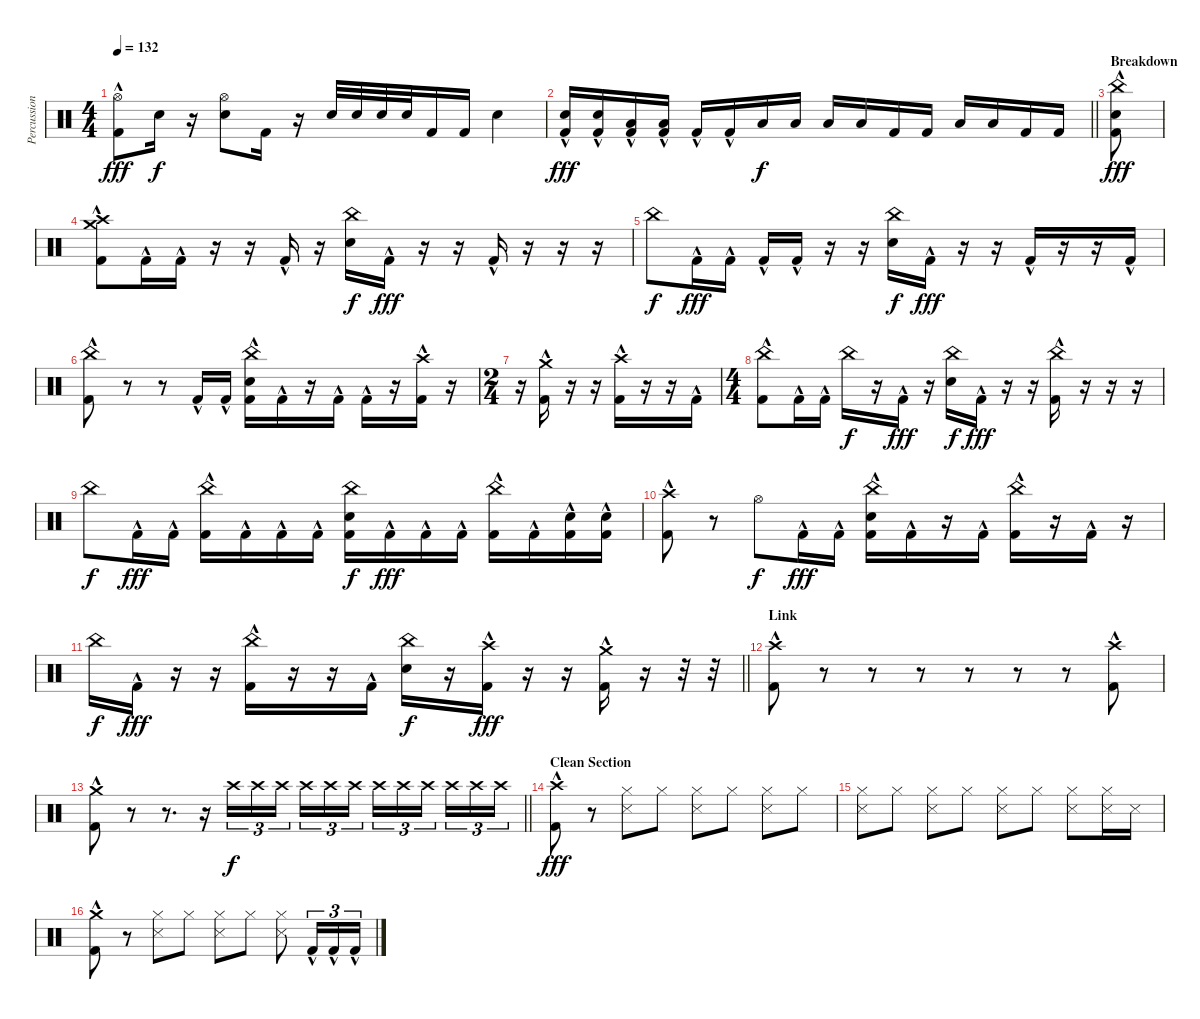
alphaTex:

\track ("Percussion" "Percussion") {instrument percussion}
\staff {score}
\articulation defaults
\ts (4 4)
\tempo 132
\clef neutral
\ks c
("Hi-Hat (open)" "Kick (hit) 2"{hac}).8{dy fff} "Electric Snare (hit)".16{dy f} r.16 ("Hi-Hat (open)" "Electric Snare (hit)").8 "Kick (hit) 2".16 r.16 "Electric Snare (hit)".32 "Electric Snare (hit)".32 "Electric Snare (hit)".32 "Electric Snare (hit)".32 "Kick (hit) 2".16 "Kick (hit) 2".16 "Electric Snare (hit)".4 |
\barLineRight lightlight
("Electric Snare (hit)" "Kick (hit) 2"{hac}).16{dy fff} ("Electric Snare (hit)" "Kick (hit) 2"{hac}).16 ("Low Tom (hit)"{hac} "Kick (hit) 2"{hac}).16 ("Low Tom (hit)"{hac} "Kick (hit) 2"{hac}).16 "Kick (hit) 2"{hac}.16 "Kick (hit) 2"{hac}.16 "Low Tom (hit)".16{dy f} "Low Tom (hit)".16 "Low Floor Tom (hit)".16 "Low Floor Tom (hit)".16 "Kick (hit) 2".16 "Kick (hit) 2".16 "Low Floor Tom (hit)".16 "Low Floor Tom (hit)".16 "Kick (hit) 2".16 "Kick (hit) 2".16 |
\section ("" "Breakdown")
("China (hit)" "Electric Snare (hit)"{hac} "Kick (hit) 2"{hac}).8{dy fff} |
("Crash high (hit)" "Crash medium (hit)" "Kick (hit) 2"{hac}).8 "Kick (hit) 2"{hac}.16 "Kick (hit) 2"{hac}.16 r.16 r.16 "Kick (hit) 2"{hac}.16 r.16 ("China (hit)" "Electric Snare (hit)").16{dy f} "Kick (hit) 2"{hac}.16{dy fff} r.16 r.16 "Kick (hit) 2"{hac}.16 r.16 r.16 r.16 |
"China (hit)".8{dy f} "Kick (hit) 2"{hac}.16{dy fff} "Kick (hit) 2"{hac}.16 "Kick (hit) 2"{hac}.16 "Kick (hit) 2"{hac}.16 r.16 r.16 ("China (hit)" "Electric Snare (hit)").16{dy f} "Kick (hit) 2"{hac}.16{dy fff} r.16 r.16 "Kick (hit) 2"{hac}.16 r.16 r.16 "Kick (hit) 2"{hac}.16 |
("China (hit)" "Kick (hit) 2"{hac}).8 r.8 r.8 "Kick (hit) 2"{hac}.16 "Kick (hit) 2"{hac}.16 ("Electric Snare (hit)" "China (hit)" "Kick (hit) 2"{hac}).16 "Kick (hit) 2"{hac}.16 r.16 "Kick (hit) 2"{hac}.16 "Kick (hit) 2"{hac}.16 r.16 ("Crash high (hit)" "Kick (hit) 2"{hac}).16 r.16 |
\ts (2 4)
r.16 ("Crash medium (hit)" "Kick (hit) 2"{hac}).16 r.16 r.16 ("Crash high (hit)" "Kick (hit) 2"{hac}).16 r.16 r.16 "Kick (hit) 2"{hac}.16 |
\ts (4 4)
("China (hit)" "Kick (hit) 2"{hac}).8 "Kick (hit) 2"{hac}.16 "Kick (hit) 2"{hac}.16 "China (hit)".16{dy f} r.16 "Kick (hit) 2"{hac}.16{dy fff} r.16 ("China (hit)" "Electric Snare (hit)").16{dy f} "Kick (hit) 2"{hac}.16{dy fff} r.16 r.16 ("China (hit)" "Kick (hit) 2"{hac}).16 r.16 r.16 r.16 |
"China (hit)".8{dy f} "Kick (hit) 2"{hac}.16{dy fff} "Kick (hit) 2"{hac}.16 ("China (hit)" "Kick (hit) 2"{hac}).16 "Kick (hit) 2"{hac}.16 "Kick (hit) 2"{hac}.16 "Kick (hit) 2"{hac}.16 ("China (hit)" "Electric Snare (hit)" "Kick (hit) 2").16{dy f} "Kick (hit) 2"{hac}.16{dy fff} "Kick (hit) 2"{hac}.16 "Kick (hit) 2"{hac}.16 ("China (hit)" "Kick (hit) 2"{hac}).16 "Kick (hit) 2"{hac}.16 ("Electric Snare (hit)" "Kick (hit) 2"{hac}).16 ("Electric Snare (hit)" "Kick (hit) 2"{hac}).16 |
("Crash high (hit)" "Kick (hit) 2"{hac}).8 r.8 "Hi-Hat (open)".8{dy f} "Kick (hit) 2"{hac}.16{dy fff} "Kick (hit) 2"{hac}.16 ("China (hit)" "Electric Snare (hit)" "Kick (hit) 2"{hac}).16 "Kick (hit) 2"{hac}.16 r.16 "Kick (hit) 2"{hac}.16 ("China (hit)" "Kick (hit) 2"{hac}).16 r.16 "Kick (hit) 2"{hac}.16 r.16 |
\barLineRight lightlight "China (hit)".16{dy f} "Kick (hit) 2"{hac}.16{dy fff}
r.16 r.16 ("China (hit)" "Kick (hit) 2"{hac}).16 r.16 r.16 "Kick (hit) 2"{hac}.16 ("China (hit)" "Electric Snare (hit)").16{dy f} r.16 ("Crash high (hit)" "Kick (hit) 2"{hac}).16{dy fff} r.16 r.16 ("Crash medium (hit)" "Kick (hit) 2"{hac}).16 r.16 r.32 r.32 |
\section ("" "Link")
("Crash high (hit)" "Kick (hit) 2"{hac}).8 r.8 r.8 r.8 r.8 r.8 r.8 ("Crash high (hit)" "Kick (hit) 2"{hac}).8 |
\barLineRight lightlight
("Crash medium (hit)"{hac} "Kick (hit) 2"{hac}).8 r.8 r.8{d} r.16{volume 3} "Crash high (hit)".16{tu (3 2) dy f volume 13} "Crash high (hit)".16{tu (3 2)} "Crash high (hit)".16{tu (3 2) beam splitsecondary} "Crash high (hit)".16{tu (3 2)} "Crash high (hit)".16{tu (3 2)} "Crash high (hit)".16{tu (3 2)} "Crash high (hit)".16{tu (3 2)} "Crash high (hit)".16{tu (3 2)} "Crash high (hit)".16{tu (3 2) beam splitsecondary} "Crash high (hit)".16{tu (3 2)} "Crash high (hit)".16{tu (3 2)} "Crash high (hit)".16{tu (3 2)} |
\section ("" "Clean Section")
("Kick (hit) 2"{hac} "Crash high (hit)"{hac}).8{dy fff} r.8 ("Snare (side stick) 3" "Hi-Hat (closed)").8 "Hi-Hat (closed)".8 ("Snare (side stick) 3" "Hi-Hat (closed)").8 "Hi-Hat (closed)".8 ("Snare (side stick) 3" "Hi-Hat (closed)").8 "Hi-Hat (closed)".8 |
("Snare (side stick) 3" "Hi-Hat (closed)").8 "Hi-Hat (closed)".8 ("Snare (side stick) 3" "Hi-Hat (closed)").8 "Hi-Hat (closed)".8 ("Snare (side stick) 3" "Hi-Hat (closed)").8 "Hi-Hat (closed)".8 ("Snare (side stick) 3" "Hi-Hat (closed)").8 ("Snare (side stick) 3" "Hi-Hat (closed)").16 "Snare (side stick) 3".16 |
("Kick (hit) 2"{hac} "Crash medium (hit)").8 r.8 ("Snare (side stick) 3" "Hi-Hat (closed)").8 "Hi-Hat (closed)".8 ("Snare (side stick) 3" "Hi-Hat (closed)").8 "Hi-Hat (closed)".8 ("Snare (side stick) 3" "Hi-Hat (closed)").8 "Kick (hit) 2"{hac}.16{tu (3 2)} "Kick (hit) 2"{hac}.16{tu (3 2)} "Kick (hit) 2"{hac}.16{tu (3 2)}
